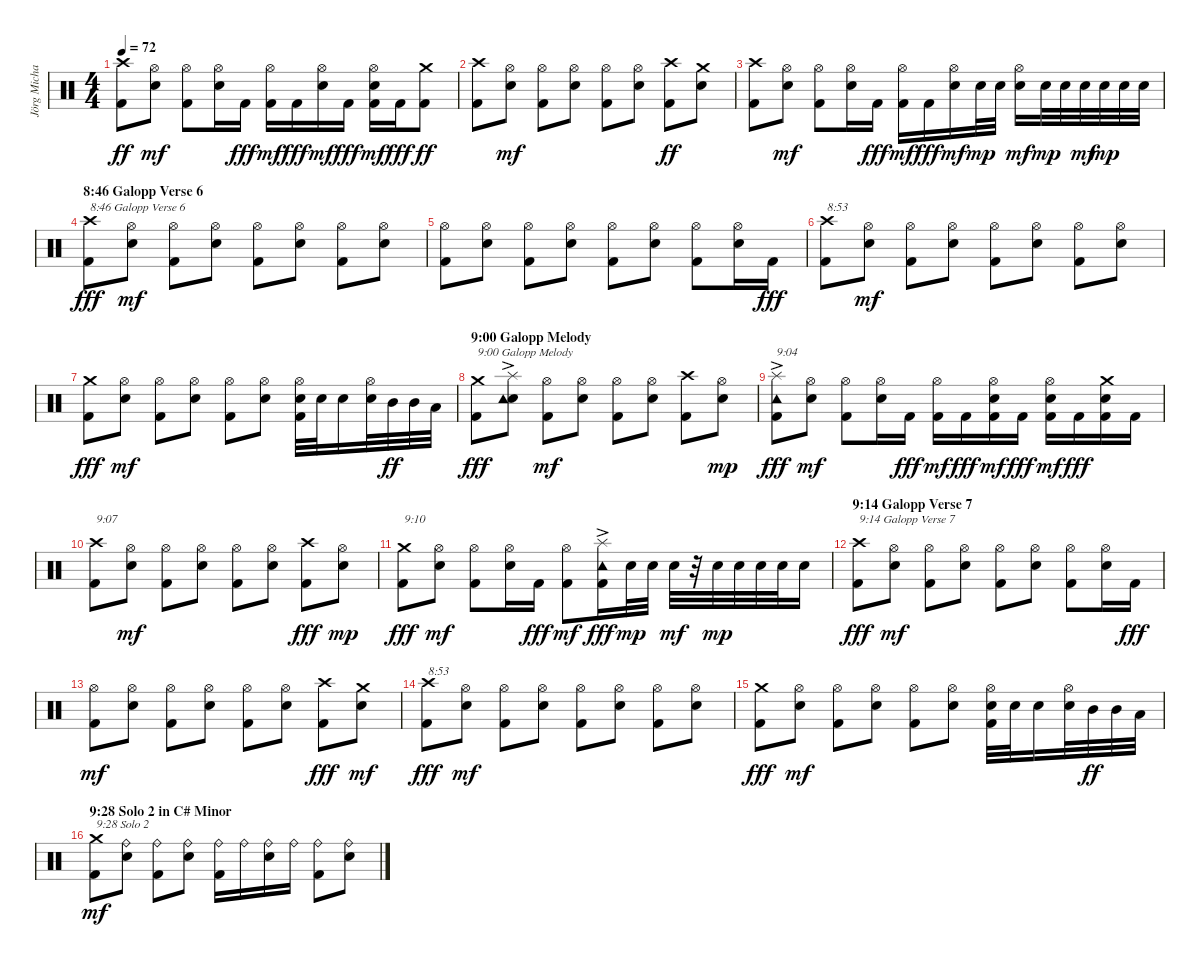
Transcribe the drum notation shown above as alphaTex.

\track ("Jörg Michael" "Jörg Micha") {instrument percussion}
\staff {score}
\articulation defaults
\ts (4 4)
\tempo 72
\clef neutral
\ks c
("Kick (hit) 2" "Crash high (hit)").8{dy ff} ("Snare (hit) 2" "Hi-Hat (open)").8{dy mf} ("Kick (hit) 2" "Hi-Hat (open)").8 ("Snare (hit) 2" "Hi-Hat (open)").16 "Kick (hit) 2".16{dy fff} ("Kick (hit) 2" "Hi-Hat (open)").16{dy mf} "Kick (hit) 2".16{dy fff} ("Snare (hit) 2" "Hi-Hat (open)").16{dy mf} "Kick (hit) 2".16{dy fff} ("Kick (hit) 2" "Snare (hit) 2" "Hi-Hat (open)").16{dy mf} "Kick (hit) 2".16{dy fff} ("Kick (hit) 2" "Crash medium (hit)").8{dy ff} |
("Kick (hit) 2" "Crash high (hit)").8 ("Snare (hit) 2" "Hi-Hat (open)").8{dy mf} ("Kick (hit) 2" "Hi-Hat (open)").8 ("Snare (hit) 2" "Hi-Hat (open)").8 ("Kick (hit) 2" "Hi-Hat (open)").8 ("Snare (hit) 2" "Hi-Hat (open)").8 ("Kick (hit) 2" "Crash high (hit)").8{dy ff} ("Snare (hit) 2" "Crash medium (hit)").8 |
("Kick (hit) 2" "Crash high (hit)").8 ("Snare (hit) 2" "Hi-Hat (open)").8{dy mf} ("Kick (hit) 2" "Hi-Hat (open)").8 ("Snare (hit) 2" "Hi-Hat (open)").16 "Kick (hit) 2".16{dy fff} ("Kick (hit) 2" "Hi-Hat (open)").16{dy mf} "Kick (hit) 2".16{dy fff} ("Snare (hit) 2" "Hi-Hat (open)").16{dy mf} "Snare (hit) 2".32{dy mp} "Snare (hit) 2".32 ("Snare (hit) 2" "Hi-Hat (open)").16{dy mf} "Snare (hit) 2".32{dy mp} "Snare (hit) 2".32 "Snare (hit) 2".32{dy mf} "Snare (hit) 2".32{dy mp} "Snare (hit) 2".32 "Snare (hit) 2".32 |
\section ("" "8:46 Galopp Verse 6")
("Kick (hit) 2" "Crash high (hit)").8{txt "8:46 Galopp Verse 6" dy fff} ("Snare (hit) 2" "Hi-Hat (open)").8{dy mf} ("Kick (hit) 2" "Hi-Hat (open)").8 ("Snare (hit) 2" "Hi-Hat (open)").8 ("Kick (hit) 2" "Hi-Hat (open)").8 ("Snare (hit) 2" "Hi-Hat (open)").8 ("Kick (hit) 2" "Hi-Hat (open)").8 ("Snare (hit) 2" "Hi-Hat (open)").8 |
("Kick (hit) 2" "Hi-Hat (open)").8 ("Snare (hit) 2" "Hi-Hat (open)").8 ("Kick (hit) 2" "Hi-Hat (open)").8 ("Snare (hit) 2" "Hi-Hat (open)").8 ("Kick (hit) 2" "Hi-Hat (open)").8 ("Snare (hit) 2" "Hi-Hat (open)").8 ("Kick (hit) 2" "Hi-Hat (open)").8 ("Snare (hit) 2" "Hi-Hat (open)").16 "Kick (hit) 2".16{dy fff} |
("Kick (hit) 2" "Crash high (hit)").8{txt "8:53"} ("Snare (hit) 2" "Hi-Hat (open)").8{dy mf} ("Kick (hit) 2" "Hi-Hat (open)").8 ("Snare (hit) 2" "Hi-Hat (open)").8 ("Kick (hit) 2" "Hi-Hat (open)").8 ("Snare (hit) 2" "Hi-Hat (open)").8 ("Kick (hit) 2" "Hi-Hat (open)").8 ("Snare (hit) 2" "Hi-Hat (open)").8 |
("Kick (hit) 2" "Crash medium (hit)").8{dy fff} ("Snare (hit) 2" "Hi-Hat (open)").8{dy mf} ("Kick (hit) 2" "Hi-Hat (open)").8 ("Snare (hit) 2" "Hi-Hat (open)").8 ("Kick (hit) 2" "Hi-Hat (open)").8 ("Snare (hit) 2" "Hi-Hat (open)").8 ("Kick (hit) 2" "Snare (hit) 2" "Hi-Hat (open)").32 "Snare (hit) 2".32 "Snare (hit) 2".16 ("Snare (hit) 2" "Hi-Hat (open)").32 "Mid Tom (hit)".32{dy ff} "Mid Tom (hit)".32 "Low Tom (hit)".32 |
\section ("" "9:00 Galopp Melody")
("Kick (hit) 2" "Crash medium (hit)").8{txt "9:00 Galopp Melody" dy fff} ("Snare (hit) 2" "Tambourine (hit)" "Splash (hit)"{ac}).8 ("Kick (hit) 2" "Hi-Hat (open)").8{dy mf} ("Snare (hit) 2" "Hi-Hat (open)").8 ("Kick (hit) 2" "Hi-Hat (open)").8 ("Snare (hit) 2" "Hi-Hat (open)").8 ("Kick (hit) 2" "Crash high (hit)").8 ("Snare (hit) 2" "Hi-Hat (open)").8{dy mp} |
("Kick (hit) 2" "Tambourine (hit)" "Splash (hit)"{ac}).8{txt "9:04" dy fff} ("Snare (hit) 2" "Hi-Hat (open)").8{dy mf} ("Kick (hit) 2" "Hi-Hat (open)").8 ("Snare (hit) 2" "Hi-Hat (open)").16 "Kick (hit) 2".16{dy fff} ("Kick (hit) 2" "Hi-Hat (open)").16{dy mf} "Kick (hit) 2".16{dy fff} ("Kick (hit) 2" "Snare (hit) 2" "Hi-Hat (open)").16{dy mf} "Kick (hit) 2".16{dy fff} ("Kick (hit) 2" "Snare (hit) 2" "Hi-Hat (open)").16{dy mf} "Kick (hit) 2".16{dy fff} ("Kick (hit) 2" "Snare (hit) 2" "Crash medium (hit)").16 "Kick (hit) 2".16 |
("Kick (hit) 2" "Crash high (hit)").8{txt "9:07"} ("Snare (hit) 2" "Hi-Hat (open)").8{dy mf} ("Kick (hit) 2" "Hi-Hat (open)").8 ("Snare (hit) 2" "Hi-Hat (open)").8 ("Kick (hit) 2" "Hi-Hat (open)").8 ("Snare (hit) 2" "Hi-Hat (open)").8 ("Kick (hit) 2" "Crash high (hit)").8{dy fff} ("Snare (hit) 2" "Hi-Hat (open)").8{dy mp} |
("Kick (hit) 2" "Crash medium (hit)").8{txt "9:10" dy fff} ("Snare (hit) 2" "Hi-Hat (open)").8{dy mf} ("Kick (hit) 2" "Hi-Hat (open)").8 ("Snare (hit) 2" "Hi-Hat (open)").16 "Kick (hit) 2".16{dy fff} ("Kick (hit) 2" "Hi-Hat (open)").8{dy mf} ("Kick (hit) 2" "Tambourine (hit)" "Splash (hit)"{ac}).16{dy fff} "Snare (hit) 2".32{dy mp} "Snare (hit) 2".32 "Snare (hit) 2".32{dy mf} r.32 "Snare (hit) 2".32{dy mp} "Snare (hit) 2".32 "Snare (hit) 2".32 "Snare (hit) 2".32 "Snare (hit) 2".16 |
\section ("" "9:14 Galopp Verse 7")
("Kick (hit) 2" "Crash high (hit)").8{txt "9:14 Galopp Verse 7 " dy fff} ("Snare (hit) 2" "Hi-Hat (open)").8{dy mf} ("Kick (hit) 2" "Hi-Hat (open)").8 ("Snare (hit) 2" "Hi-Hat (open)").8 ("Kick (hit) 2" "Hi-Hat (open)").8 ("Snare (hit) 2" "Hi-Hat (open)").8 ("Kick (hit) 2" "Hi-Hat (open)").8 ("Snare (hit) 2" "Hi-Hat (open)").16 "Kick (hit) 2".16{dy fff} |
("Kick (hit) 2" "Hi-Hat (open)").8{dy mf} ("Snare (hit) 2" "Hi-Hat (open)").8 ("Kick (hit) 2" "Hi-Hat (open)").8 ("Snare (hit) 2" "Hi-Hat (open)").8 ("Kick (hit) 2" "Hi-Hat (open)").8 ("Snare (hit) 2" "Hi-Hat (open)").8 ("Kick (hit) 2" "Crash high (hit)").8{dy fff} ("Snare (hit) 2" "Crash medium (hit)").8{dy mf} |
("Kick (hit) 2" "Crash high (hit)").8{txt "8:53" dy fff} ("Snare (hit) 2" "Hi-Hat (open)").8{dy mf} ("Kick (hit) 2" "Hi-Hat (open)").8 ("Snare (hit) 2" "Hi-Hat (open)").8 ("Kick (hit) 2" "Hi-Hat (open)").8 ("Snare (hit) 2" "Hi-Hat (open)").8 ("Kick (hit) 2" "Hi-Hat (open)").8 ("Snare (hit) 2" "Hi-Hat (open)").8 |
("Kick (hit) 2" "Crash medium (hit)").8{dy fff} ("Snare (hit) 2" "Hi-Hat (open)").8{dy mf} ("Kick (hit) 2" "Hi-Hat (open)").8 ("Snare (hit) 2" "Hi-Hat (open)").8 ("Kick (hit) 2" "Hi-Hat (open)").8 ("Snare (hit) 2" "Hi-Hat (open)").8 ("Kick (hit) 2" "Snare (hit) 2" "Hi-Hat (open)").32 "Snare (hit) 2".32 "Snare (hit) 2".16 ("Snare (hit) 2" "Hi-Hat (open)").32 "Mid Tom (hit)".32{dy ff} "Mid Tom (hit)".32 "Low Tom (hit)".32 |
\section ("" "9:28 Solo 2 in C# Minor")
("Kick (hit) 2" "Crash medium (hit)").8{txt "9:28 Solo 2" dy mf} ("Snare (hit) 2" "Ride (bell)").8 ("Kick (hit) 2" "Ride (bell)").8 ("Snare (hit) 2" "Ride (bell)").8 ("Kick (hit) 2" "Ride (bell)").16 "Ride (bell)".16 ("Snare (hit) 2" "Ride (bell)").16 "Ride (bell)".16 ("Kick (hit) 2" "Ride (bell)").8 ("Snare (hit) 2" "Ride (bell)").8
